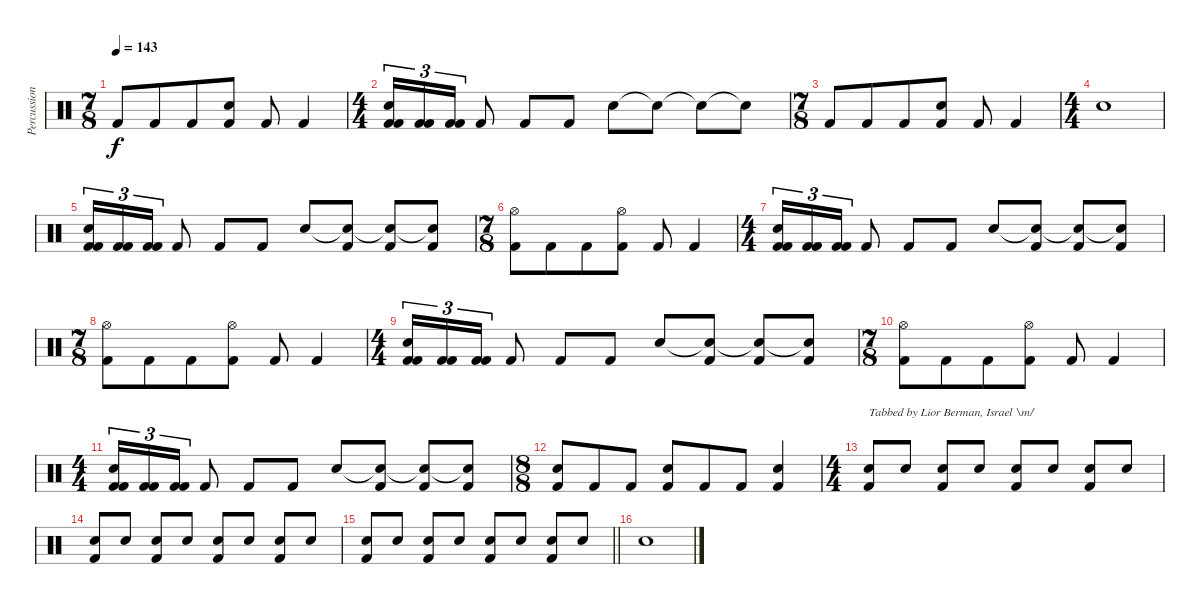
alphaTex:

\track ("Percussion" "Percussion") {instrument percussion}
\staff {score}
\articulation defaults
\ts (7 8)
\tempo 143
\clef neutral
\ks c "Kick (hit) 2".8{dy f} "Kick (hit) 2".8 "Kick (hit) 2".8
("Electric Snare (hit)" "Kick (hit) 2").8 "Kick (hit) 2".8 "Kick (hit) 2".4 |
\ts (4 4)
("Electric Snare (hit)" "Kick (hit) 2" "Kick (hit) 2").16{tu (3 2)} ("Kick (hit) 2" "Kick (hit) 2").16{tu (3 2)} ("Kick (hit) 2" "Kick (hit) 2").16{tu (3 2)} "Kick (hit) 2".8 "Kick (hit) 2".8 "Kick (hit) 2".8 "Electric Snare (hit)".8 "Snare (hit)"{t}.8 "Snare (hit)"{t}.8 "Snare (hit)"{t}.8 |
\ts (7 8)
"Kick (hit) 2".8 "Kick (hit) 2".8 "Kick (hit) 2".8 ("Electric Snare (hit)" "Kick (hit) 2").8 "Kick (hit) 2".8 "Kick (hit) 2".4 |
\ts (4 4)
"Electric Snare (hit)".1 |
("Electric Snare (hit)" "Kick (hit) 2" "Kick (hit) 2").16{tu (3 2)} ("Kick (hit) 2" "Kick (hit) 2").16{tu (3 2)} ("Kick (hit) 2" "Kick (hit) 2").16{tu (3 2)} "Kick (hit) 2".8 "Kick (hit) 2".8 "Kick (hit) 2".8 "Electric Snare (hit)".8 ("Snare (hit)"{t} "Kick (hit) 2").8 ("Snare (hit)"{t} "Kick (hit) 2").8 ("Snare (hit)"{t} "Kick (hit) 2").8 |
\ts (7 8)
("Hi-Hat (open)" "Kick (hit) 2").8 "Kick (hit) 2".8 "Kick (hit) 2".8 ("Hi-Hat (open)" "Kick (hit) 2").8 "Kick (hit) 2".8 "Kick (hit) 2".4 |
\ts (4 4)
("Electric Snare (hit)" "Kick (hit) 2" "Kick (hit) 2").16{tu (3 2)} ("Kick (hit) 2" "Kick (hit) 2").16{tu (3 2)} ("Kick (hit) 2" "Kick (hit) 2").16{tu (3 2)} "Kick (hit) 2".8 "Kick (hit) 2".8 "Kick (hit) 2".8 "Electric Snare (hit)".8 ("Snare (hit)"{t} "Kick (hit) 2").8 ("Snare (hit)"{t} "Kick (hit) 2").8 ("Snare (hit)"{t} "Kick (hit) 2").8 |
\ts (7 8)
("Hi-Hat (open)" "Kick (hit) 2").8 "Kick (hit) 2".8 "Kick (hit) 2".8 ("Hi-Hat (open)" "Kick (hit) 2").8 "Kick (hit) 2".8 "Kick (hit) 2".4 |
\ts (4 4)
("Electric Snare (hit)" "Kick (hit) 2" "Kick (hit) 2").16{tu (3 2)} ("Kick (hit) 2" "Kick (hit) 2").16{tu (3 2)} ("Kick (hit) 2" "Kick (hit) 2").16{tu (3 2)} "Kick (hit) 2".8 "Kick (hit) 2".8 "Kick (hit) 2".8 "Electric Snare (hit)".8 ("Snare (hit)"{t} "Kick (hit) 2").8 ("Snare (hit)"{t} "Kick (hit) 2").8 ("Snare (hit)"{t} "Kick (hit) 2").8 |
\ts (7 8)
("Hi-Hat (open)" "Kick (hit) 2").8 "Kick (hit) 2".8 "Kick (hit) 2".8 ("Hi-Hat (open)" "Kick (hit) 2").8 "Kick (hit) 2".8 "Kick (hit) 2".4 |
\ts (4 4)
("Electric Snare (hit)" "Kick (hit) 2" "Kick (hit) 2").16{tu (3 2)} ("Kick (hit) 2" "Kick (hit) 2").16{tu (3 2)} ("Kick (hit) 2" "Kick (hit) 2").16{tu (3 2)} "Kick (hit) 2".8 "Kick (hit) 2".8 "Kick (hit) 2".8 "Electric Snare (hit)".8 ("Snare (hit)"{t} "Kick (hit) 2").8 ("Snare (hit)"{t} "Kick (hit) 2").8 ("Snare (hit)"{t} "Kick (hit) 2").8 |
\ts (8 8)
("Electric Snare (hit)" "Kick (hit) 2").8 "Kick (hit) 2".8 "Kick (hit) 2".8 ("Electric Snare (hit)" "Kick (hit) 2").8 "Kick (hit) 2".8 "Kick (hit) 2".8 ("Electric Snare (hit)" "Kick (hit) 2").4 |
\ts (4 4)
("Electric Snare (hit)" "Kick (hit) 2").8{txt "Tabbed by Lior Berman, Israel \\m/"} "Electric Snare (hit)".8 ("Electric Snare (hit)" "Kick (hit) 2").8 "Electric Snare (hit)".8 ("Electric Snare (hit)" "Kick (hit) 2").8 "Electric Snare (hit)".8 ("Electric Snare (hit)" "Kick (hit) 2").8 "Electric Snare (hit)".8 |
("Electric Snare (hit)" "Kick (hit) 2").8 "Electric Snare (hit)".8 ("Electric Snare (hit)" "Kick (hit) 2").8 "Electric Snare (hit)".8 ("Electric Snare (hit)" "Kick (hit) 2").8 "Electric Snare (hit)".8 ("Electric Snare (hit)" "Kick (hit) 2").8 "Electric Snare (hit)".8 |
\barLineRight lightlight
("Electric Snare (hit)" "Kick (hit) 2").8 "Electric Snare (hit)".8 ("Electric Snare (hit)" "Kick (hit) 2").8 "Electric Snare (hit)".8 ("Electric Snare (hit)" "Kick (hit) 2").8 "Electric Snare (hit)".8 ("Electric Snare (hit)" "Kick (hit) 2").8 "Electric Snare (hit)".8 |
"Electric Snare (hit)".1
